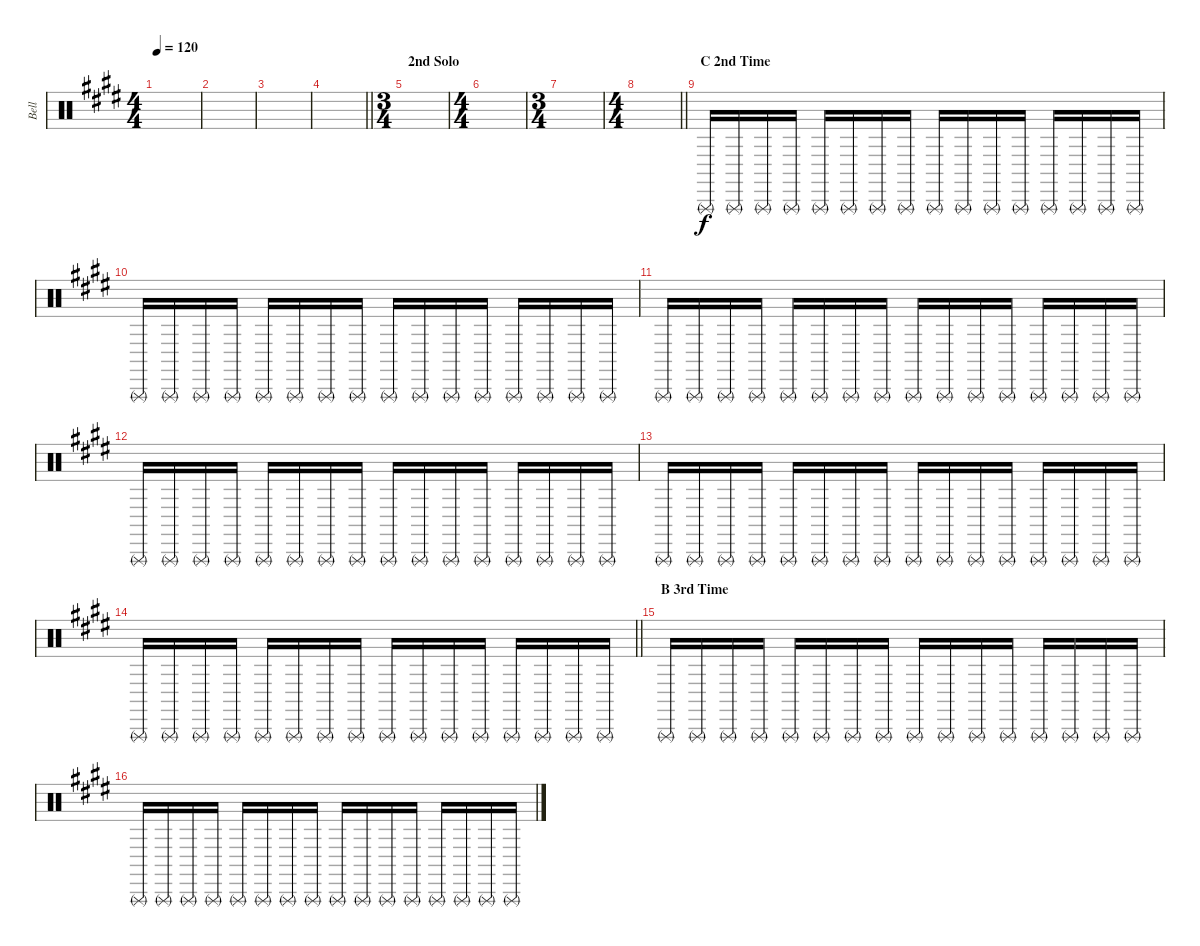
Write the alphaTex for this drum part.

\track ("Bell" "Bell") {instrument percussion}
\staff {score}
\articulation defaults
\ts (4 4)
\tempo 120
\clef neutral
\ks e
|
|
|
\barLineRight lightlight
|
\ts (3 4)
\section ("" "2nd Solo")
|
\ts (4 4)
|
\ts (3 4)
|
\ts (4 4)
\barLineRight lightlight
|
\section ("" "C 2nd Time")
"Triangle (rnute)".16 "Triangle (rnute)".16 "Triangle (rnute)".16 "Triangle (rnute)".16 "Triangle (rnute)".16 "Triangle (rnute)".16 "Triangle (rnute)".16 "Triangle (rnute)".16 "Triangle (rnute)".16 "Triangle (rnute)".16 "Triangle (rnute)".16 "Triangle (rnute)".16 "Triangle (rnute)".16 "Triangle (rnute)".16 "Triangle (rnute)".16 "Triangle (rnute)".16 |
"Triangle (rnute)".16 "Triangle (rnute)".16 "Triangle (rnute)".16 "Triangle (rnute)".16 "Triangle (rnute)".16 "Triangle (rnute)".16 "Triangle (rnute)".16 "Triangle (rnute)".16 "Triangle (rnute)".16 "Triangle (rnute)".16 "Triangle (rnute)".16 "Triangle (rnute)".16 "Triangle (rnute)".16 "Triangle (rnute)".16 "Triangle (rnute)".16 "Triangle (rnute)".16 |
"Triangle (rnute)".16 "Triangle (rnute)".16 "Triangle (rnute)".16 "Triangle (rnute)".16 "Triangle (rnute)".16 "Triangle (rnute)".16 "Triangle (rnute)".16 "Triangle (rnute)".16 "Triangle (rnute)".16 "Triangle (rnute)".16 "Triangle (rnute)".16 "Triangle (rnute)".16 "Triangle (rnute)".16 "Triangle (rnute)".16 "Triangle (rnute)".16 "Triangle (rnute)".16 |
"Triangle (rnute)".16 "Triangle (rnute)".16 "Triangle (rnute)".16 "Triangle (rnute)".16 "Triangle (rnute)".16 "Triangle (rnute)".16 "Triangle (rnute)".16 "Triangle (rnute)".16 "Triangle (rnute)".16 "Triangle (rnute)".16 "Triangle (rnute)".16 "Triangle (rnute)".16 "Triangle (rnute)".16 "Triangle (rnute)".16 "Triangle (rnute)".16 "Triangle (rnute)".16 |
"Triangle (rnute)".16 "Triangle (rnute)".16 "Triangle (rnute)".16 "Triangle (rnute)".16 "Triangle (rnute)".16 "Triangle (rnute)".16 "Triangle (rnute)".16 "Triangle (rnute)".16 "Triangle (rnute)".16 "Triangle (rnute)".16 "Triangle (rnute)".16 "Triangle (rnute)".16 "Triangle (rnute)".16 "Triangle (rnute)".16 "Triangle (rnute)".16 "Triangle (rnute)".16 |
\barLineRight lightlight "Triangle (rnute)".16 "Triangle (rnute)".16 "Triangle (rnute)".16 "Triangle (rnute)".16 "Triangle (rnute)".16 "Triangle (rnute)".16 "Triangle (rnute)".16 "Triangle (rnute)".16 "Triangle (rnute)".16 "Triangle (rnute)".16 "Triangle (rnute)".16 "Triangle (rnute)".16 "Triangle (rnute)".16 "Triangle (rnute)".16 "Triangle (rnute)".16 "Triangle (rnute)".16
|
\section ("" "B 3rd Time")
"Triangle (rnute)".16 "Triangle (rnute)".16 "Triangle (rnute)".16 "Triangle (rnute)".16 "Triangle (rnute)".16 "Triangle (rnute)".16 "Triangle (rnute)".16 "Triangle (rnute)".16 "Triangle (rnute)".16 "Triangle (rnute)".16 "Triangle (rnute)".16 "Triangle (rnute)".16 "Triangle (rnute)".16 "Triangle (rnute)".16 "Triangle (rnute)".16 "Triangle (rnute)".16 |
"Triangle (rnute)".16 "Triangle (rnute)".16 "Triangle (rnute)".16 "Triangle (rnute)".16 "Triangle (rnute)".16 "Triangle (rnute)".16 "Triangle (rnute)".16 "Triangle (rnute)".16 "Triangle (rnute)".16 "Triangle (rnute)".16 "Triangle (rnute)".16 "Triangle (rnute)".16 "Triangle (rnute)".16 "Triangle (rnute)".16 "Triangle (rnute)".16 "Triangle (rnute)".16
